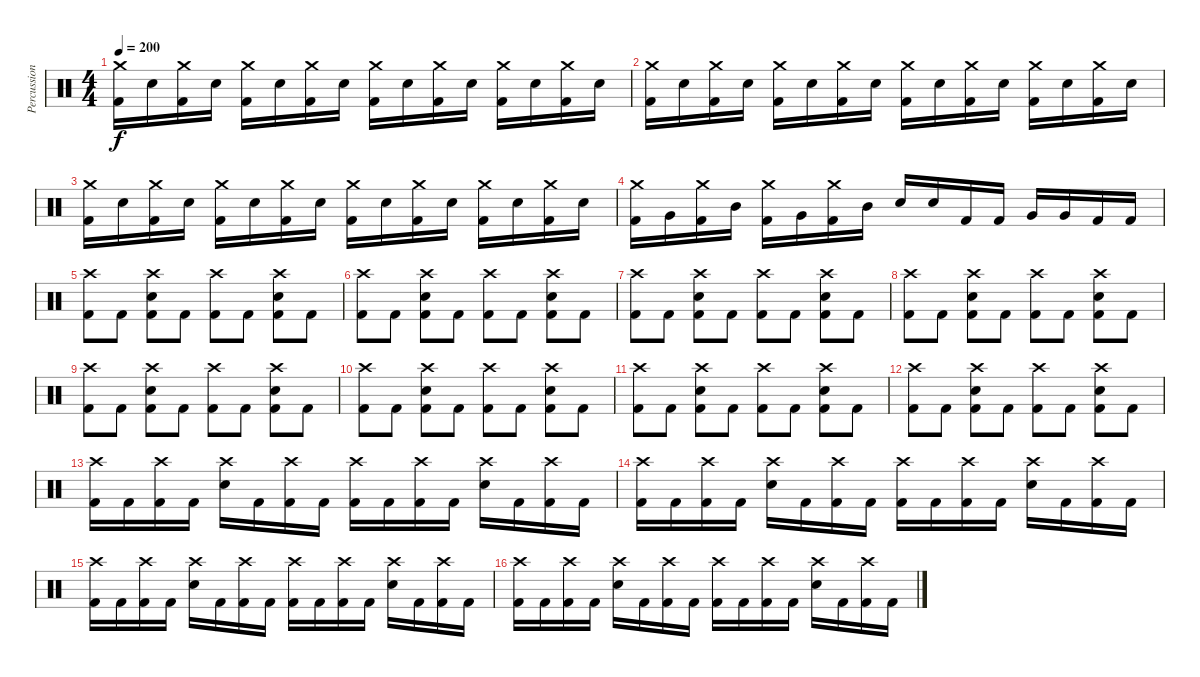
\track ("Percussion" "Percussion") {instrument percussion}
\staff {score}
\articulation defaults
\ts (4 4)
\tempo 200
\clef neutral
\ks c
("Crash medium (hit)" "Kick (hit) 2").16{dy f} "Snare (hit) 2".16 ("Crash medium (hit)" "Kick (hit) 2").16 "Snare (hit) 2".16 ("Crash medium (hit)" "Kick (hit) 2").16 "Snare (hit) 2".16 ("Crash medium (hit)" "Kick (hit) 2").16 "Snare (hit) 2".16 ("Crash medium (hit)" "Kick (hit) 2").16 "Snare (hit) 2".16 ("Crash medium (hit)" "Kick (hit) 2").16 "Snare (hit) 2".16 ("Crash medium (hit)" "Kick (hit) 2").16 "Snare (hit) 2".16 ("Crash medium (hit)" "Kick (hit) 2").16 "Snare (hit) 2".16 |
("Crash medium (hit)" "Kick (hit) 2").16 "Snare (hit) 2".16 ("Crash medium (hit)" "Kick (hit) 2").16 "Snare (hit) 2".16 ("Crash medium (hit)" "Kick (hit) 2").16 "Snare (hit) 2".16 ("Crash medium (hit)" "Kick (hit) 2").16 "Snare (hit) 2".16 ("Crash medium (hit)" "Kick (hit) 2").16 "Snare (hit) 2".16 ("Crash medium (hit)" "Kick (hit) 2").16 "Snare (hit) 2".16 ("Crash medium (hit)" "Kick (hit) 2").16 "Snare (hit) 2".16 ("Crash medium (hit)" "Kick (hit) 2").16 "Snare (hit) 2".16 |
("Crash medium (hit)" "Kick (hit) 2").16 "Snare (hit) 2".16 ("Crash medium (hit)" "Kick (hit) 2").16 "Snare (hit) 2".16 ("Crash medium (hit)" "Kick (hit) 2").16 "Snare (hit) 2".16 ("Crash medium (hit)" "Kick (hit) 2").16 "Snare (hit) 2".16 ("Crash medium (hit)" "Kick (hit) 2").16 "Snare (hit) 2".16 ("Crash medium (hit)" "Kick (hit) 2").16 "Snare (hit) 2".16 ("Crash medium (hit)" "Kick (hit) 2").16 "Snare (hit) 2".16 ("Crash medium (hit)" "Kick (hit) 2").16 "Snare (hit) 2".16 |
("Crash medium (hit)" "Kick (hit) 2").16 "Very Low Tom (hit)".16 ("Crash medium (hit)" "Kick (hit) 2").16 "Mid Tom (hit)".16 ("Crash medium (hit)" "Kick (hit) 2").16 "Very Low Tom (hit)".16 ("Crash medium (hit)" "Kick (hit) 2").16 "Mid Tom (hit)".16 "Electric Snare (hit)".16 "Electric Snare (hit)".16 "Kick (hit) 2".16 "Kick (hit) 2".16 "Very Low Tom (hit)".16 "Very Low Tom (hit)".16 "Kick (hit) 2".16 "Kick (hit) 2".16 |
("Crash high (hit)" "Kick (hit) 2").8 "Kick (hit) 2".8 ("Crash high (hit)" "Snare (hit) 2" "Kick (hit) 2").8 "Kick (hit) 2".8 ("Crash high (hit)" "Kick (hit) 2").8 "Kick (hit) 2".8 ("Crash high (hit)" "Snare (hit) 2" "Kick (hit) 2").8 "Kick (hit) 2".8 |
("Crash high (hit)" "Kick (hit) 2").8 "Kick (hit) 2".8 ("Crash high (hit)" "Snare (hit) 2" "Kick (hit) 2").8 "Kick (hit) 2".8 ("Crash high (hit)" "Kick (hit) 2").8 "Kick (hit) 2".8 ("Crash high (hit)" "Snare (hit) 2" "Kick (hit) 2").8 "Kick (hit) 2".8 |
("Crash high (hit)" "Kick (hit) 2").8 "Kick (hit) 2".8 ("Crash high (hit)" "Snare (hit) 2" "Kick (hit) 2").8 "Kick (hit) 2".8 ("Crash high (hit)" "Kick (hit) 2").8 "Kick (hit) 2".8 ("Crash high (hit)" "Snare (hit) 2" "Kick (hit) 2").8 "Kick (hit) 2".8 |
("Crash high (hit)" "Kick (hit) 2").8 "Kick (hit) 2".8 ("Crash high (hit)" "Snare (hit) 2" "Kick (hit) 2").8 "Kick (hit) 2".8 ("Crash high (hit)" "Kick (hit) 2").8 "Kick (hit) 2".8 ("Crash high (hit)" "Snare (hit) 2" "Kick (hit) 2").8 "Kick (hit) 2".8 |
("Crash high (hit)" "Kick (hit) 2").8 "Kick (hit) 2".8 ("Crash high (hit)" "Snare (hit) 2" "Kick (hit) 2").8 "Kick (hit) 2".8 ("Crash high (hit)" "Kick (hit) 2").8 "Kick (hit) 2".8 ("Crash high (hit)" "Snare (hit) 2" "Kick (hit) 2").8 "Kick (hit) 2".8 |
("Crash high (hit)" "Kick (hit) 2").8 "Kick (hit) 2".8 ("Crash high (hit)" "Snare (hit) 2" "Kick (hit) 2").8 "Kick (hit) 2".8 ("Crash high (hit)" "Kick (hit) 2").8 "Kick (hit) 2".8 ("Crash high (hit)" "Snare (hit) 2" "Kick (hit) 2").8 "Kick (hit) 2".8 |
("Crash high (hit)" "Kick (hit) 2").8 "Kick (hit) 2".8 ("Crash high (hit)" "Snare (hit) 2" "Kick (hit) 2").8 "Kick (hit) 2".8 ("Crash high (hit)" "Kick (hit) 2").8 "Kick (hit) 2".8 ("Crash high (hit)" "Snare (hit) 2" "Kick (hit) 2").8 "Kick (hit) 2".8 |
("Crash high (hit)" "Kick (hit) 2").8 "Kick (hit) 2".8 ("Crash high (hit)" "Snare (hit) 2" "Kick (hit) 2").8 "Kick (hit) 2".8 ("Crash high (hit)" "Kick (hit) 2").8 "Kick (hit) 2".8 ("Crash high (hit)" "Snare (hit) 2" "Kick (hit) 2").8 "Kick (hit) 2".8 |
("Crash high (hit)" "Kick (hit) 2").16 "Kick (hit) 2".16 ("Crash high (hit)" "Kick (hit) 2").16 "Kick (hit) 2".16 ("Crash high (hit)" "Electric Snare (hit)").16 "Kick (hit) 2".16 ("Crash high (hit)" "Kick (hit) 2").16 "Kick (hit) 2".16 ("Crash high (hit)" "Kick (hit) 2").16 "Kick (hit) 2".16 ("Crash high (hit)" "Kick (hit) 2").16 "Kick (hit) 2".16 ("Crash high (hit)" "Electric Snare (hit)").16 "Kick (hit) 2".16 ("Crash high (hit)" "Kick (hit) 2").16 "Kick (hit) 2".16 |
("Crash high (hit)" "Kick (hit) 2").16 "Kick (hit) 2".16 ("Crash high (hit)" "Kick (hit) 2").16 "Kick (hit) 2".16 ("Crash high (hit)" "Electric Snare (hit)").16 "Kick (hit) 2".16 ("Crash high (hit)" "Kick (hit) 2").16 "Kick (hit) 2".16 ("Crash high (hit)" "Kick (hit) 2").16 "Kick (hit) 2".16 ("Crash high (hit)" "Kick (hit) 2").16 "Kick (hit) 2".16 ("Crash high (hit)" "Electric Snare (hit)").16 "Kick (hit) 2".16 ("Crash high (hit)" "Kick (hit) 2").16 "Kick (hit) 2".16 |
("Crash high (hit)" "Kick (hit) 2").16 "Kick (hit) 2".16 ("Crash high (hit)" "Kick (hit) 2").16 "Kick (hit) 2".16 ("Crash high (hit)" "Electric Snare (hit)").16 "Kick (hit) 2".16 ("Crash high (hit)" "Kick (hit) 2").16 "Kick (hit) 2".16 ("Crash high (hit)" "Kick (hit) 2").16 "Kick (hit) 2".16 ("Crash high (hit)" "Kick (hit) 2").16 "Kick (hit) 2".16 ("Crash high (hit)" "Electric Snare (hit)").16 "Kick (hit) 2".16 ("Crash high (hit)" "Kick (hit) 2").16 "Kick (hit) 2".16 |
("Crash high (hit)" "Kick (hit) 2").16 "Kick (hit) 2".16 ("Crash high (hit)" "Kick (hit) 2").16 "Kick (hit) 2".16 ("Crash high (hit)" "Electric Snare (hit)").16 "Kick (hit) 2".16 ("Crash high (hit)" "Kick (hit) 2").16 "Kick (hit) 2".16 ("Crash high (hit)" "Kick (hit) 2").16 "Kick (hit) 2".16 ("Crash high (hit)" "Kick (hit) 2").16 "Kick (hit) 2".16 ("Crash high (hit)" "Electric Snare (hit)").16 "Kick (hit) 2".16 ("Crash high (hit)" "Kick (hit) 2").16 "Kick (hit) 2".16
